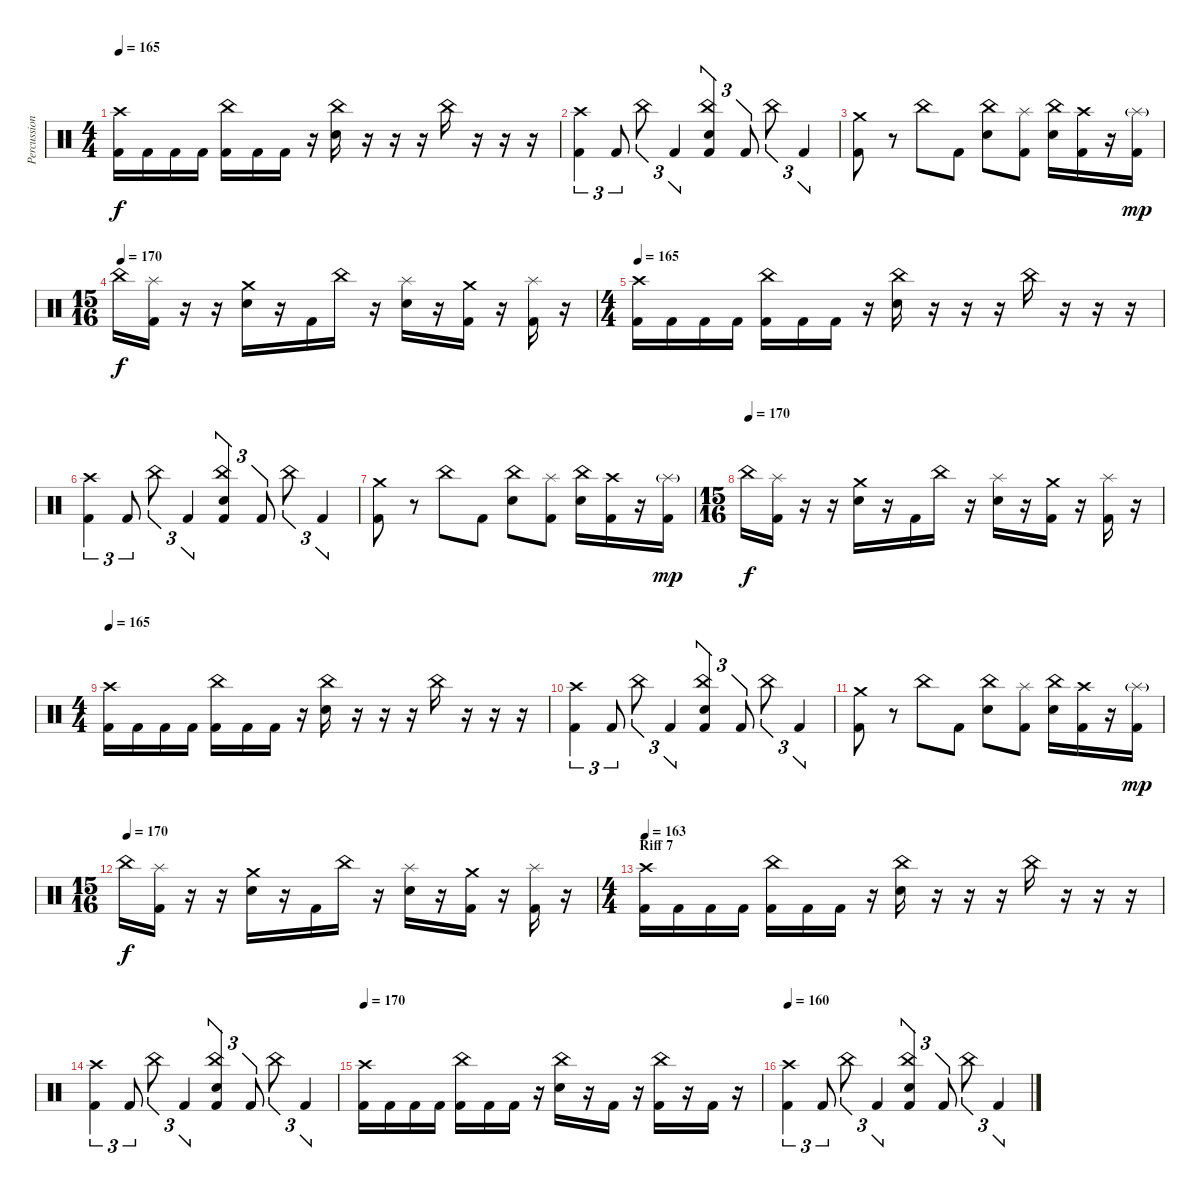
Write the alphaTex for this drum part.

\track ("Percussion" "Percussion") {instrument percussion}
\staff {score}
\articulation defaults
\ts (4 4)
\tempo 165
\clef neutral
\ks c
("Crash high (hit)" "Kick (hit) 2").16{dy f} "Kick (hit) 2".16 "Kick (hit) 2".16 "Kick (hit) 2".16 ("China (hit)" "Kick (hit) 2").16 "Kick (hit) 2".16 "Kick (hit) 2".16 r.16 ("China (hit)" "Electric Snare (hit)").16 r.16 r.16 r.16 "China (hit)".16 r.16 r.16 r.16 |
("Crash high (hit)" "Kick (hit) 2").4{tu (3 2)} "Kick (hit) 2".8{tu (3 2)} "China (hit)".8{tu (3 2)} "Kick (hit) 2".4{tu (3 2)} ("China (hit)" "Electric Snare (hit)" "Kick (hit) 2").4{tu (3 2)} "Kick (hit) 2".8{tu (3 2)} "China (hit)".8{tu (3 2)} "Kick (hit) 2".4{tu (3 2)} |
("Crash medium (hit)" "Kick (hit) 2").8 r.8 "China (hit)".8 "Kick (hit) 2".8 ("China (hit)" "Electric Snare (hit)").8 ("Splash (hit)" "Kick (hit) 2").8 ("China (hit)" "Electric Snare (hit)").16 ("Crash high (hit)" "Kick (hit) 2").16 r.16 ("Splash (hit)"{g} "Kick (hit) 2").16{dy mp} |
\ts (15 16)
\tempo (170)
"China (hit)".16{dy f} ("Splash (hit)" "Kick (hit) 2").16 r.16 r.16 ("Crash medium (hit)" "Electric Snare (hit)").16 r.16 "Kick (hit) 2".16 "China (hit)".16 r.16 ("Splash (hit)" "Electric Snare (hit)").16 r.16 ("Crash medium (hit)" "Kick (hit) 2").16 r.16 ("Splash (hit)" "Kick (hit) 2").16 r.16 |
\ts (4 4)
\tempo 165
("Crash high (hit)" "Kick (hit) 2").16 "Kick (hit) 2".16 "Kick (hit) 2".16 "Kick (hit) 2".16 ("China (hit)" "Kick (hit) 2").16 "Kick (hit) 2".16 "Kick (hit) 2".16 r.16 ("China (hit)" "Electric Snare (hit)").16 r.16 r.16 r.16 "China (hit)".16 r.16 r.16 r.16 |
("Crash high (hit)" "Kick (hit) 2").4{tu (3 2)} "Kick (hit) 2".8{tu (3 2)} "China (hit)".8{tu (3 2)} "Kick (hit) 2".4{tu (3 2)} ("China (hit)" "Electric Snare (hit)" "Kick (hit) 2").4{tu (3 2)} "Kick (hit) 2".8{tu (3 2)} "China (hit)".8{tu (3 2)} "Kick (hit) 2".4{tu (3 2)} |
("Crash medium (hit)" "Kick (hit) 2").8 r.8 "China (hit)".8 "Kick (hit) 2".8 ("China (hit)" "Electric Snare (hit)").8 ("Splash (hit)" "Kick (hit) 2").8 ("China (hit)" "Electric Snare (hit)").16 ("Crash high (hit)" "Kick (hit) 2").16 r.16 ("Splash (hit)"{g} "Kick (hit) 2").16{dy mp} |
\ts (15 16)
\tempo (170)
"China (hit)".16{dy f} ("Splash (hit)" "Kick (hit) 2").16 r.16 r.16 ("Crash medium (hit)" "Electric Snare (hit)").16 r.16 "Kick (hit) 2".16 "China (hit)".16 r.16 ("Splash (hit)" "Electric Snare (hit)").16 r.16 ("Crash medium (hit)" "Kick (hit) 2").16 r.16 ("Splash (hit)" "Kick (hit) 2").16 r.16 |
\ts (4 4)
\tempo 165
("Crash high (hit)" "Kick (hit) 2").16 "Kick (hit) 2".16 "Kick (hit) 2".16 "Kick (hit) 2".16 ("China (hit)" "Kick (hit) 2").16 "Kick (hit) 2".16 "Kick (hit) 2".16 r.16 ("China (hit)" "Electric Snare (hit)").16 r.16 r.16 r.16 "China (hit)".16 r.16 r.16 r.16 |
("Crash high (hit)" "Kick (hit) 2").4{tu (3 2)} "Kick (hit) 2".8{tu (3 2)} "China (hit)".8{tu (3 2)} "Kick (hit) 2".4{tu (3 2)} ("China (hit)" "Electric Snare (hit)" "Kick (hit) 2").4{tu (3 2)} "Kick (hit) 2".8{tu (3 2)} "China (hit)".8{tu (3 2)} "Kick (hit) 2".4{tu (3 2)} |
("Crash medium (hit)" "Kick (hit) 2").8 r.8 "China (hit)".8 "Kick (hit) 2".8 ("China (hit)" "Electric Snare (hit)").8 ("Splash (hit)" "Kick (hit) 2").8 ("China (hit)" "Electric Snare (hit)").16 ("Crash high (hit)" "Kick (hit) 2").16 r.16 ("Splash (hit)"{g} "Kick (hit) 2").16{dy mp} |
\ts (15 16)
\tempo (170)
"China (hit)".16{dy f} ("Splash (hit)" "Kick (hit) 2").16 r.16 r.16 ("Crash medium (hit)" "Electric Snare (hit)").16 r.16 "Kick (hit) 2".16 "China (hit)".16 r.16 ("Splash (hit)" "Electric Snare (hit)").16 r.16 ("Crash medium (hit)" "Kick (hit) 2").16 r.16 ("Splash (hit)" "Kick (hit) 2").16 r.16 |
\ts (4 4)
\section ("" "Riff 7")
\tempo 163
("Crash high (hit)" "Kick (hit) 2").16 "Kick (hit) 2".16 "Kick (hit) 2".16 "Kick (hit) 2".16 ("China (hit)" "Kick (hit) 2").16 "Kick (hit) 2".16 "Kick (hit) 2".16 r.16 ("China (hit)" "Electric Snare (hit)").16 r.16 r.16 r.16 "China (hit)".16 r.16 r.16 r.16 |
("Crash high (hit)" "Kick (hit) 2").4{tu (3 2)} "Kick (hit) 2".8{tu (3 2)} "China (hit)".8{tu (3 2)} "Kick (hit) 2".4{tu (3 2)} ("China (hit)" "Electric Snare (hit)" "Kick (hit) 2").4{tu (3 2)} "Kick (hit) 2".8{tu (3 2)} "China (hit)".8{tu (3 2)} "Kick (hit) 2".4{tu (3 2)} |
\tempo 170
("Crash high (hit)" "Kick (hit) 2").16 "Kick (hit) 2".16 "Kick (hit) 2".16 "Kick (hit) 2".16 ("China (hit)" "Kick (hit) 2").16 "Kick (hit) 2".16 "Kick (hit) 2".16 r.16 ("China (hit)" "Electric Snare (hit)").16 r.16 "Kick (hit) 2".16 r.16 ("China (hit)" "Kick (hit) 2").16 r.16 "Kick (hit) 2".16 r.16 |
\tempo 160
("Crash high (hit)" "Kick (hit) 2").4{tu (3 2)} "Kick (hit) 2".8{tu (3 2)} "China (hit)".8{tu (3 2)} "Kick (hit) 2".4{tu (3 2)} ("China (hit)" "Electric Snare (hit)" "Kick (hit) 2").4{tu (3 2)} "Kick (hit) 2".8{tu (3 2)} "China (hit)".8{tu (3 2)} "Kick (hit) 2".4{tu (3 2)}
